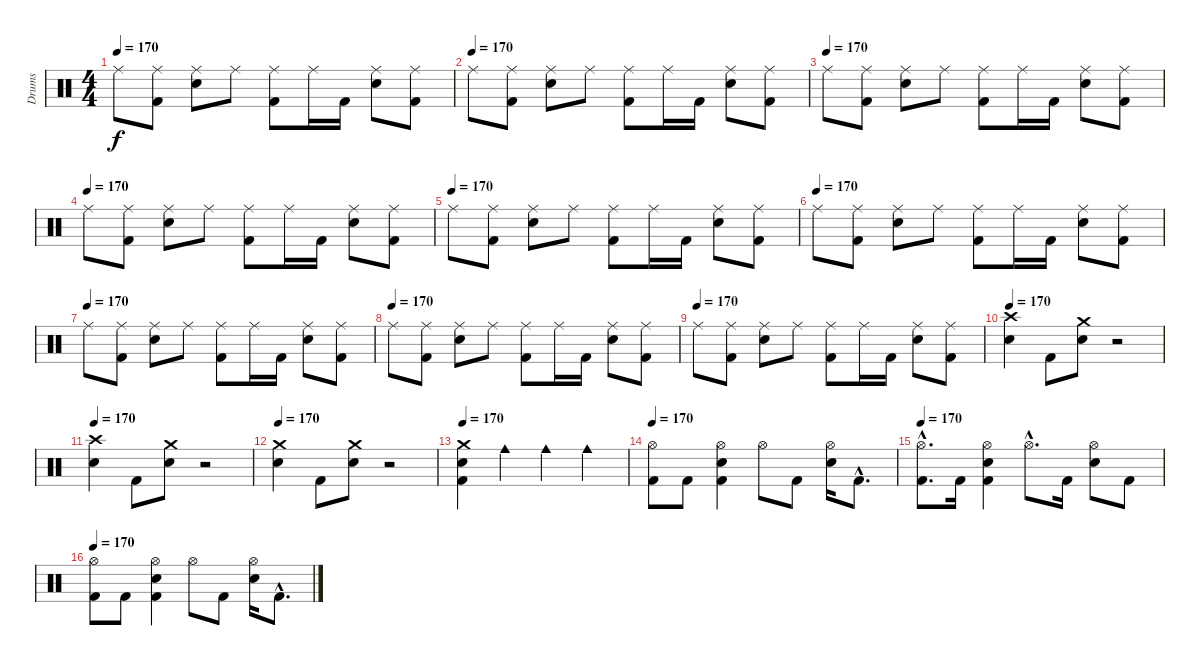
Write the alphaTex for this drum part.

\track ("Drums" "Drums") {instrument percussion}
\staff {score}
\articulation defaults
\ts (4 4)
\tempo 170
\clef neutral
\ks c "Ride (middle)".8{dy f}
("Kick (hit) 2" "Ride (middle)").8 ("Ride (middle)" "Electric Snare (hit)").8 "Ride (middle)".8 ("Kick (hit) 2" "Ride (middle)").8 "Ride (middle)".16 "Kick (hit) 2".16 ("Ride (middle)" "Electric Snare (hit)").8 ("Ride (middle)" "Kick (hit) 2").8 |
\tempo (170)
"Ride (middle)".8 ("Kick (hit) 2" "Ride (middle)").8 ("Electric Snare (hit)" "Ride (middle)").8 "Ride (middle)".8 ("Kick (hit) 2" "Ride (middle)").8 "Ride (middle)".16 "Kick (hit) 2".16 ("Electric Snare (hit)" "Ride (middle)").8 ("Kick (hit) 2" "Ride (middle)").8 |
\tempo (170)
"Ride (middle)".8 ("Kick (hit) 2" "Ride (middle)").8 ("Ride (middle)" "Electric Snare (hit)").8 "Ride (middle)".8 ("Kick (hit) 2" "Ride (middle)").8 "Ride (middle)".16 "Kick (hit) 2".16 ("Ride (middle)" "Electric Snare (hit)").8 ("Ride (middle)" "Kick (hit) 2").8 |
\tempo (170)
"Ride (middle)".8 ("Kick (hit) 2" "Ride (middle)").8 ("Electric Snare (hit)" "Ride (middle)").8 "Ride (middle)".8 ("Kick (hit) 2" "Ride (middle)").8 "Ride (middle)".16 "Kick (hit) 2".16 ("Electric Snare (hit)" "Ride (middle)").8 ("Kick (hit) 2" "Ride (middle)").8 |
\tempo (170)
"Ride (middle)".8 ("Kick (hit) 2" "Ride (middle)").8 ("Ride (middle)" "Electric Snare (hit)").8 "Ride (middle)".8 ("Kick (hit) 2" "Ride (middle)").8 "Ride (middle)".16 "Kick (hit) 2".16 ("Ride (middle)" "Electric Snare (hit)").8 ("Ride (middle)" "Kick (hit) 2").8 |
\tempo (170)
"Ride (middle)".8 ("Kick (hit) 2" "Ride (middle)").8 ("Electric Snare (hit)" "Ride (middle)").8 "Ride (middle)".8 ("Kick (hit) 2" "Ride (middle)").8 "Ride (middle)".16 "Kick (hit) 2".16 ("Electric Snare (hit)" "Ride (middle)").8 ("Kick (hit) 2" "Ride (middle)").8 |
\tempo (170)
"Ride (middle)".8 ("Kick (hit) 2" "Ride (middle)").8 ("Ride (middle)" "Electric Snare (hit)").8 "Ride (middle)".8 ("Kick (hit) 2" "Ride (middle)").8 "Ride (middle)".16 "Kick (hit) 2".16 ("Ride (middle)" "Electric Snare (hit)").8 ("Ride (middle)" "Kick (hit) 2").8 |
\tempo (170)
"Ride (middle)".8 ("Kick (hit) 2" "Ride (middle)").8 ("Electric Snare (hit)" "Ride (middle)").8 "Ride (middle)".8 ("Kick (hit) 2" "Ride (middle)").8 "Ride (middle)".16 "Kick (hit) 2".16 ("Electric Snare (hit)" "Ride (middle)").8 ("Kick (hit) 2" "Ride (middle)").8 |
\tempo (170)
"Ride (middle)".8 ("Kick (hit) 2" "Ride (middle)").8 ("Ride (middle)" "Electric Snare (hit)").8 "Ride (middle)".8 ("Kick (hit) 2" "Ride (middle)").8 "Ride (middle)".16 "Kick (hit) 2".16 ("Ride (middle)" "Electric Snare (hit)").8 ("Ride (middle)" "Kick (hit) 2").8 |
\tempo 170
("Crash high (hit)" "Electric Snare (hit)").4 "Kick (hit) 2".8 ("Electric Snare (hit)" "Crash medium (hit)").8 r.2 |
\tempo 170
("Crash high (hit)" "Electric Snare (hit)").4 "Kick (hit) 2".8 ("Crash medium (hit)" "Electric Snare (hit)").8 r.2 |
\tempo 170
("Crash medium (hit)" "Electric Snare (hit)").4 "Kick (hit) 2".8 ("Crash medium (hit)" "Electric Snare (hit)").8 r.2 |
\tempo 170
("Electric Snare (hit)" "Kick (hit) 2" "Crash medium (hit)").4 "Cowbell medium (hit)".4 "Cowbell medium (hit)".4 "Cowbell medium (hit)".4 |
\tempo 170
("Hi-Hat (open)" "Kick (hit) 2").8 "Kick (hit) 2".8 ("Hi-Hat (open)" "Electric Snare (hit)" "Kick (hit) 2").4 "Hi-Hat (open)".8 "Kick (hit) 2".8 ("Electric Snare (hit)" "Hi-Hat (open)").16 "Kick (hit) 2"{hac}.8{d} |
\tempo 170
("Hi-Hat (open)"{hac} "Kick (hit) 2"{hac}).8{d} "Kick (hit) 2".16 ("Hi-Hat (open)" "Electric Snare (hit)" "Kick (hit) 2").4 "Hi-Hat (open)"{hac}.8{d} "Kick (hit) 2".16 ("Hi-Hat (open)" "Electric Snare (hit)").8 "Kick (hit) 2".8 |
\tempo 170
("Hi-Hat (open)" "Kick (hit) 2").8 "Kick (hit) 2".8 ("Hi-Hat (open)" "Electric Snare (hit)" "Kick (hit) 2").4 "Hi-Hat (open)".8 "Kick (hit) 2".8 ("Electric Snare (hit)" "Hi-Hat (open)").16 "Kick (hit) 2"{hac}.8{d}
